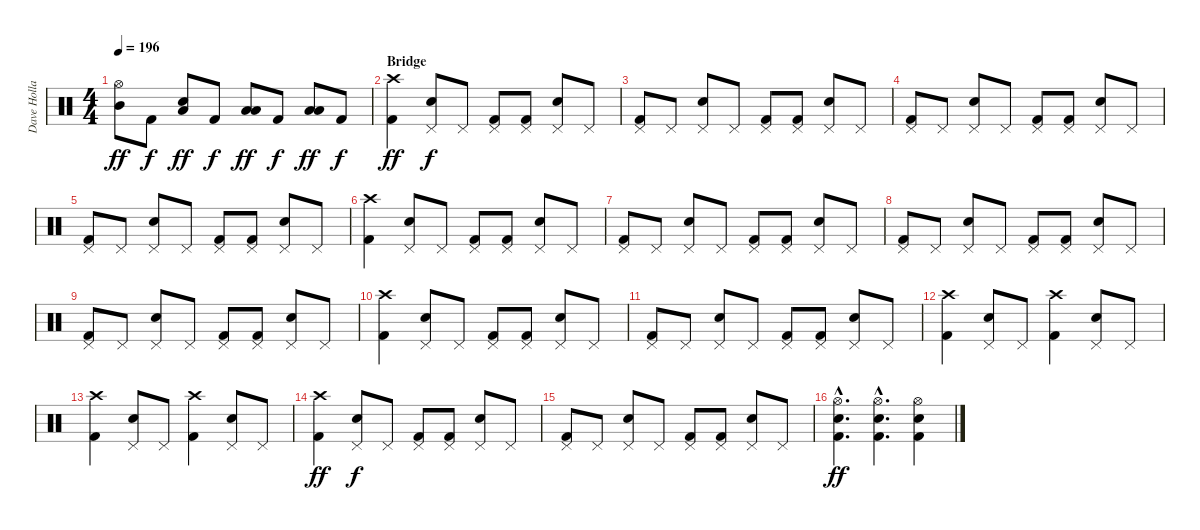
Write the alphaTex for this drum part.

\track ("Dave Holland" "Dave Holla") {instrument percussion}
\staff {score}
\articulation defaults
\ts (4 4)
\tempo 196
\clef neutral
\ks c
("Hi-Hat (open)" "Mid Tom (hit)").8{dy ff} "Kick (hit) 2".8{dy f} ("Electric Snare (hit)" "Low Tom (hit)").8{dy ff} "Kick (hit) 2".8{dy f} ("Low Tom (hit)" "Low Floor Tom (hit)").8{dy ff} "Kick (hit) 2".8{dy f} ("Low Tom (hit)" "Low Floor Tom (hit)").8{dy ff} "Kick (hit) 2".8{dy f} |
\section ("" "Bridge")
("Crash high (hit)" "Kick (hit) 2").4{dy ff} ("Pedal Hi-Hat (hit)" "Snare (hit) 2").8{dy f} "Pedal Hi-Hat (hit)".8 ("Pedal Hi-Hat (hit)" "Kick (hit) 2").8 ("Pedal Hi-Hat (hit)" "Kick (hit) 2").8 ("Pedal Hi-Hat (hit)" "Snare (hit) 2").8 "Pedal Hi-Hat (hit)".8 |
("Pedal Hi-Hat (hit)" "Kick (hit) 2").8 "Pedal Hi-Hat (hit)".8 ("Pedal Hi-Hat (hit)" "Snare (hit) 2").8 "Pedal Hi-Hat (hit)".8 ("Pedal Hi-Hat (hit)" "Kick (hit) 2").8 ("Pedal Hi-Hat (hit)" "Kick (hit) 2").8 ("Pedal Hi-Hat (hit)" "Snare (hit) 2").8 "Pedal Hi-Hat (hit)".8 |
("Pedal Hi-Hat (hit)" "Kick (hit) 2").8 "Pedal Hi-Hat (hit)".8 ("Pedal Hi-Hat (hit)" "Snare (hit) 2").8 "Pedal Hi-Hat (hit)".8 ("Pedal Hi-Hat (hit)" "Kick (hit) 2").8 ("Pedal Hi-Hat (hit)" "Kick (hit) 2").8 ("Pedal Hi-Hat (hit)" "Snare (hit) 2").8 "Pedal Hi-Hat (hit)".8 |
("Pedal Hi-Hat (hit)" "Kick (hit) 2").8 "Pedal Hi-Hat (hit)".8 ("Pedal Hi-Hat (hit)" "Snare (hit) 2").8 "Pedal Hi-Hat (hit)".8 ("Pedal Hi-Hat (hit)" "Kick (hit) 2").8 ("Pedal Hi-Hat (hit)" "Kick (hit) 2").8 ("Pedal Hi-Hat (hit)" "Snare (hit) 2").8 "Pedal Hi-Hat (hit)".8 |
("Crash high (hit)" "Kick (hit) 2").4 ("Pedal Hi-Hat (hit)" "Snare (hit) 2").8 "Pedal Hi-Hat (hit)".8 ("Pedal Hi-Hat (hit)" "Kick (hit) 2").8 ("Pedal Hi-Hat (hit)" "Kick (hit) 2").8 ("Pedal Hi-Hat (hit)" "Snare (hit) 2").8 "Pedal Hi-Hat (hit)".8 |
("Pedal Hi-Hat (hit)" "Kick (hit) 2").8 "Pedal Hi-Hat (hit)".8 ("Pedal Hi-Hat (hit)" "Snare (hit) 2").8 "Pedal Hi-Hat (hit)".8 ("Pedal Hi-Hat (hit)" "Kick (hit) 2").8 ("Pedal Hi-Hat (hit)" "Kick (hit) 2").8 ("Pedal Hi-Hat (hit)" "Snare (hit) 2").8 "Pedal Hi-Hat (hit)".8 |
("Pedal Hi-Hat (hit)" "Kick (hit) 2").8 "Pedal Hi-Hat (hit)".8 ("Pedal Hi-Hat (hit)" "Snare (hit) 2").8 "Pedal Hi-Hat (hit)".8 ("Pedal Hi-Hat (hit)" "Kick (hit) 2").8 ("Pedal Hi-Hat (hit)" "Kick (hit) 2").8 ("Pedal Hi-Hat (hit)" "Snare (hit) 2").8 "Pedal Hi-Hat (hit)".8 |
("Pedal Hi-Hat (hit)" "Kick (hit) 2").8 "Pedal Hi-Hat (hit)".8 ("Pedal Hi-Hat (hit)" "Snare (hit) 2").8 "Pedal Hi-Hat (hit)".8 ("Pedal Hi-Hat (hit)" "Kick (hit) 2").8 ("Pedal Hi-Hat (hit)" "Kick (hit) 2").8 ("Pedal Hi-Hat (hit)" "Snare (hit) 2").8 "Pedal Hi-Hat (hit)".8 |
("Crash high (hit)" "Kick (hit) 2").4 ("Pedal Hi-Hat (hit)" "Snare (hit) 2").8 "Pedal Hi-Hat (hit)".8 ("Pedal Hi-Hat (hit)" "Kick (hit) 2").8 ("Pedal Hi-Hat (hit)" "Kick (hit) 2").8 ("Pedal Hi-Hat (hit)" "Snare (hit) 2").8 "Pedal Hi-Hat (hit)".8 |
("Pedal Hi-Hat (hit)" "Kick (hit) 2").8 "Pedal Hi-Hat (hit)".8 ("Pedal Hi-Hat (hit)" "Snare (hit) 2").8 "Pedal Hi-Hat (hit)".8 ("Pedal Hi-Hat (hit)" "Kick (hit) 2").8 ("Pedal Hi-Hat (hit)" "Kick (hit) 2").8 ("Pedal Hi-Hat (hit)" "Snare (hit) 2").8 "Pedal Hi-Hat (hit)".8 |
("Crash high (hit)" "Kick (hit) 2").4 ("Pedal Hi-Hat (hit)" "Snare (hit) 2").8 "Pedal Hi-Hat (hit)".8 ("Crash high (hit)" "Kick (hit) 2").4 ("Pedal Hi-Hat (hit)" "Snare (hit) 2").8 "Pedal Hi-Hat (hit)".8 |
("Crash high (hit)" "Kick (hit) 2").4 ("Pedal Hi-Hat (hit)" "Snare (hit) 2").8 "Pedal Hi-Hat (hit)".8 ("Crash high (hit)" "Kick (hit) 2").4 ("Pedal Hi-Hat (hit)" "Snare (hit) 2").8 "Pedal Hi-Hat (hit)".8 |
("Crash high (hit)" "Kick (hit) 2").4{dy ff} ("Pedal Hi-Hat (hit)" "Snare (hit) 2").8{dy f} "Pedal Hi-Hat (hit)".8 ("Pedal Hi-Hat (hit)" "Kick (hit) 2").8 ("Pedal Hi-Hat (hit)" "Kick (hit) 2").8 ("Pedal Hi-Hat (hit)" "Snare (hit) 2").8 "Pedal Hi-Hat (hit)".8 |
("Pedal Hi-Hat (hit)" "Kick (hit) 2").8 "Pedal Hi-Hat (hit)".8 ("Pedal Hi-Hat (hit)" "Snare (hit) 2").8 "Pedal Hi-Hat (hit)".8 ("Pedal Hi-Hat (hit)" "Kick (hit) 2").8 ("Pedal Hi-Hat (hit)" "Kick (hit) 2").8 ("Pedal Hi-Hat (hit)" "Snare (hit) 2").8 "Pedal Hi-Hat (hit)".8 |
("Hi-Hat (open)"{hac} "Snare (hit) 2"{hac} "Kick (hit) 2"{hac}).4{d dy ff} ("Hi-Hat (open)"{hac} "Snare (hit) 2"{hac} "Kick (hit) 2"{hac}).4{d} ("Hi-Hat (open)" "Snare (hit) 2" "Kick (hit) 2").4
